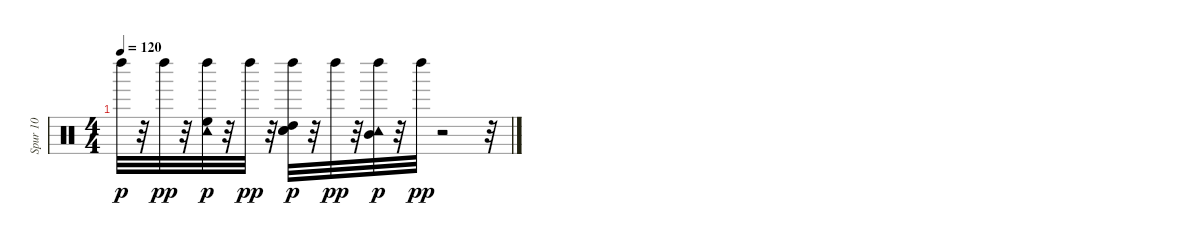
\track ("Spur 10" "Spur 10") {instrument percussion}
\staff {score}
\articulation defaults
\ts (4 4)
\tempo 120
\clef neutral
\ks c "Left Maraca (hit)".32{dy p}
r.32 "Left Maraca (hit)".32{dy pp} r.32 ("High Floor Tom (hit)" "Tambourine (hit)" "Left Maraca (hit)").32{dy p} r.32 "Left Maraca (hit)".32{dy pp} r.32 ("Hand Clap (hit)" "Electric Snare (hit)" "High Tom (hit)" "Left Maraca (hit)").32{dy p} r.32 "Left Maraca (hit)".32{dy pp} r.32 ("Mid Tom (hit)" "Tambourine (hit)" "Left Maraca (hit)").32{dy p} r.32 "Left Maraca (hit)".32{dy pp} r.2 r.32
